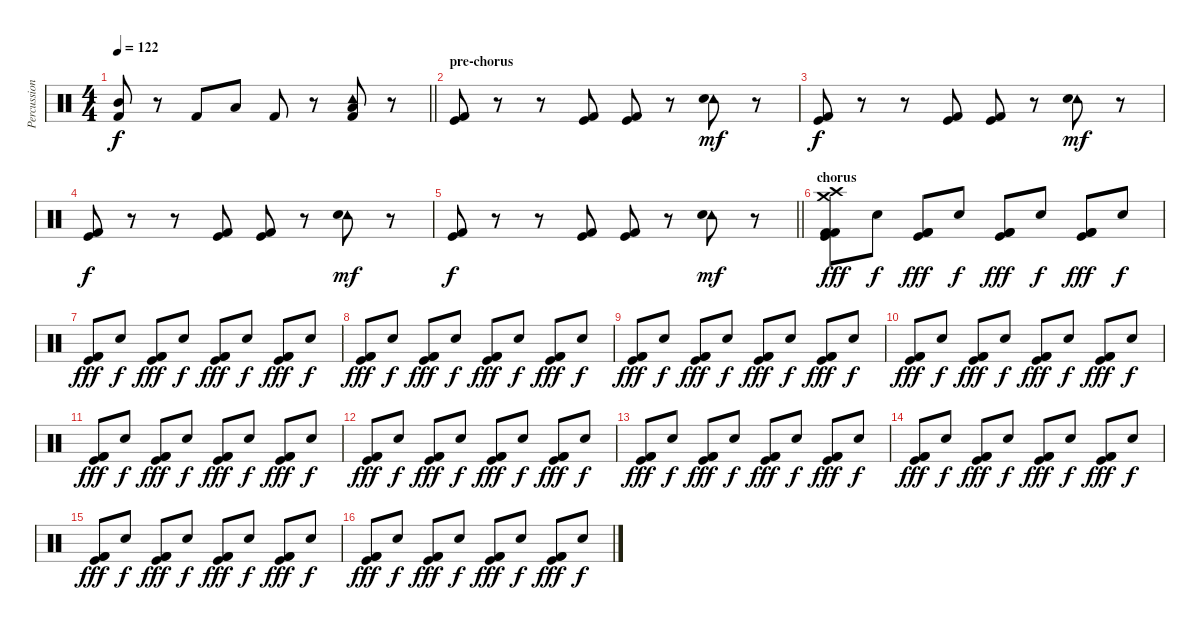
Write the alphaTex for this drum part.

\track ("Percussion" "Percussion") {instrument percussion}
\staff {score}
\articulation defaults
\ts (4 4)
\tempo 122
\clef neutral
\barLineRight lightlight
\ks c
("Mid Tom (hit)" "Kick (hit) 2").8{dy f} r.8 "Kick (hit) 2".8 "Low Tom (hit)".8 "Kick (hit) 2".8 r.8 ("Tambourine (hit)" "Low Floor Tom (hit)" "Kick (hit) 2").8 r.8 |
\section ("" "pre-chorus")
("Kick (hit)" "Kick (hit) 2").8 r.8 r.8 ("Kick (hit) 2" "Kick (hit)").8 ("Kick (hit) 2" "Kick (hit)").8 r.8 ("Tambourine (hit)" "Snare (hit) 2").8{dy mf} r.8 |
("Kick (hit)" "Kick (hit) 2").8{dy f} r.8 r.8 ("Kick (hit) 2" "Kick (hit)").8 ("Kick (hit) 2" "Kick (hit)").8 r.8 ("Tambourine (hit)" "Snare (hit) 2").8{dy mf} r.8 |
("Kick (hit)" "Kick (hit) 2").8{dy f} r.8 r.8 ("Kick (hit) 2" "Kick (hit)").8 ("Kick (hit) 2" "Kick (hit)").8 r.8 ("Tambourine (hit)" "Snare (hit) 2").8{dy mf} r.8 |
\barLineRight lightlight
("Kick (hit)" "Kick (hit) 2").8{dy f} r.8 r.8 ("Kick (hit) 2" "Kick (hit)").8 ("Kick (hit) 2" "Kick (hit)").8 r.8 ("Tambourine (hit)" "Snare (hit) 2").8{dy mf} r.8 |
\section ("" "chorus")
("Crash high (hit)" "Crash medium (hit)" "Kick (hit) 2" "Kick (hit)" "Kick (hit) 2").8{dy fff} "Hand Clap (hit)".8{dy f} ("Kick (hit) 2" "Kick (hit)" "Kick (hit) 2").8{dy fff} "Hand Clap (hit)".8{dy f} ("Kick (hit) 2" "Kick (hit)" "Kick (hit) 2").8{dy fff} "Hand Clap (hit)".8{dy f} ("Kick (hit) 2" "Kick (hit)" "Kick (hit) 2").8{dy fff} "Hand Clap (hit)".8{dy f} |
("Kick (hit) 2" "Kick (hit)" "Kick (hit) 2").8{dy fff} "Hand Clap (hit)".8{dy f} ("Kick (hit) 2" "Kick (hit)" "Kick (hit) 2").8{dy fff} "Hand Clap (hit)".8{dy f} ("Kick (hit) 2" "Kick (hit)" "Kick (hit) 2").8{dy fff} "Hand Clap (hit)".8{dy f} ("Kick (hit) 2" "Kick (hit)" "Kick (hit) 2").8{dy fff} "Hand Clap (hit)".8{dy f} |
("Kick (hit) 2" "Kick (hit)" "Kick (hit) 2").8{dy fff} "Hand Clap (hit)".8{dy f} ("Kick (hit) 2" "Kick (hit)" "Kick (hit) 2").8{dy fff} "Hand Clap (hit)".8{dy f} ("Kick (hit) 2" "Kick (hit)" "Kick (hit) 2").8{dy fff} "Hand Clap (hit)".8{dy f} ("Kick (hit) 2" "Kick (hit)" "Kick (hit) 2").8{dy fff} "Hand Clap (hit)".8{dy f} |
("Kick (hit) 2" "Kick (hit)" "Kick (hit) 2").8{dy fff} "Hand Clap (hit)".8{dy f} ("Kick (hit) 2" "Kick (hit)" "Kick (hit) 2").8{dy fff} "Hand Clap (hit)".8{dy f} ("Kick (hit) 2" "Kick (hit)" "Kick (hit) 2").8{dy fff} "Hand Clap (hit)".8{dy f} ("Kick (hit) 2" "Kick (hit)" "Kick (hit) 2").8{dy fff} "Hand Clap (hit)".8{dy f} |
("Kick (hit) 2" "Kick (hit)" "Kick (hit) 2").8{dy fff} "Hand Clap (hit)".8{dy f} ("Kick (hit) 2" "Kick (hit)" "Kick (hit) 2").8{dy fff} "Hand Clap (hit)".8{dy f} ("Kick (hit) 2" "Kick (hit)" "Kick (hit) 2").8{dy fff} "Hand Clap (hit)".8{dy f} ("Kick (hit) 2" "Kick (hit)" "Kick (hit) 2").8{dy fff} "Hand Clap (hit)".8{dy f} |
("Kick (hit) 2" "Kick (hit)" "Kick (hit) 2").8{dy fff} "Hand Clap (hit)".8{dy f} ("Kick (hit) 2" "Kick (hit)" "Kick (hit) 2").8{dy fff} "Hand Clap (hit)".8{dy f} ("Kick (hit) 2" "Kick (hit)" "Kick (hit) 2").8{dy fff} "Hand Clap (hit)".8{dy f} ("Kick (hit) 2" "Kick (hit)" "Kick (hit) 2").8{dy fff} "Hand Clap (hit)".8{dy f} |
("Kick (hit) 2" "Kick (hit)" "Kick (hit) 2").8{dy fff} "Hand Clap (hit)".8{dy f} ("Kick (hit) 2" "Kick (hit)" "Kick (hit) 2").8{dy fff} "Hand Clap (hit)".8{dy f} ("Kick (hit) 2" "Kick (hit)" "Kick (hit) 2").8{dy fff} "Hand Clap (hit)".8{dy f} ("Kick (hit) 2" "Kick (hit)" "Kick (hit) 2").8{dy fff} "Hand Clap (hit)".8{dy f} |
("Kick (hit) 2" "Kick (hit)" "Kick (hit) 2").8{dy fff} "Hand Clap (hit)".8{dy f} ("Kick (hit) 2" "Kick (hit)" "Kick (hit) 2").8{dy fff} "Hand Clap (hit)".8{dy f} ("Kick (hit) 2" "Kick (hit)" "Kick (hit) 2").8{dy fff} "Hand Clap (hit)".8{dy f} ("Kick (hit) 2" "Kick (hit)" "Kick (hit) 2").8{dy fff} "Hand Clap (hit)".8{dy f} |
("Kick (hit) 2" "Kick (hit)" "Kick (hit) 2").8{dy fff} "Hand Clap (hit)".8{dy f} ("Kick (hit) 2" "Kick (hit)" "Kick (hit) 2").8{dy fff} "Hand Clap (hit)".8{dy f} ("Kick (hit) 2" "Kick (hit)" "Kick (hit) 2").8{dy fff} "Hand Clap (hit)".8{dy f} ("Kick (hit) 2" "Kick (hit)" "Kick (hit) 2").8{dy fff} "Hand Clap (hit)".8{dy f} |
("Kick (hit) 2" "Kick (hit)" "Kick (hit) 2").8{dy fff} "Hand Clap (hit)".8{dy f} ("Kick (hit) 2" "Kick (hit)" "Kick (hit) 2").8{dy fff} "Hand Clap (hit)".8{dy f} ("Kick (hit) 2" "Kick (hit)" "Kick (hit) 2").8{dy fff} "Hand Clap (hit)".8{dy f} ("Kick (hit) 2" "Kick (hit)" "Kick (hit) 2").8{dy fff} "Hand Clap (hit)".8{dy f} |
("Kick (hit) 2" "Kick (hit)" "Kick (hit) 2").8{dy fff} "Hand Clap (hit)".8{dy f} ("Kick (hit) 2" "Kick (hit)" "Kick (hit) 2").8{dy fff} "Hand Clap (hit)".8{dy f} ("Kick (hit) 2" "Kick (hit)" "Kick (hit) 2").8{dy fff} "Hand Clap (hit)".8{dy f} ("Kick (hit) 2" "Kick (hit)" "Kick (hit) 2").8{dy fff} "Hand Clap (hit)".8{dy f}
